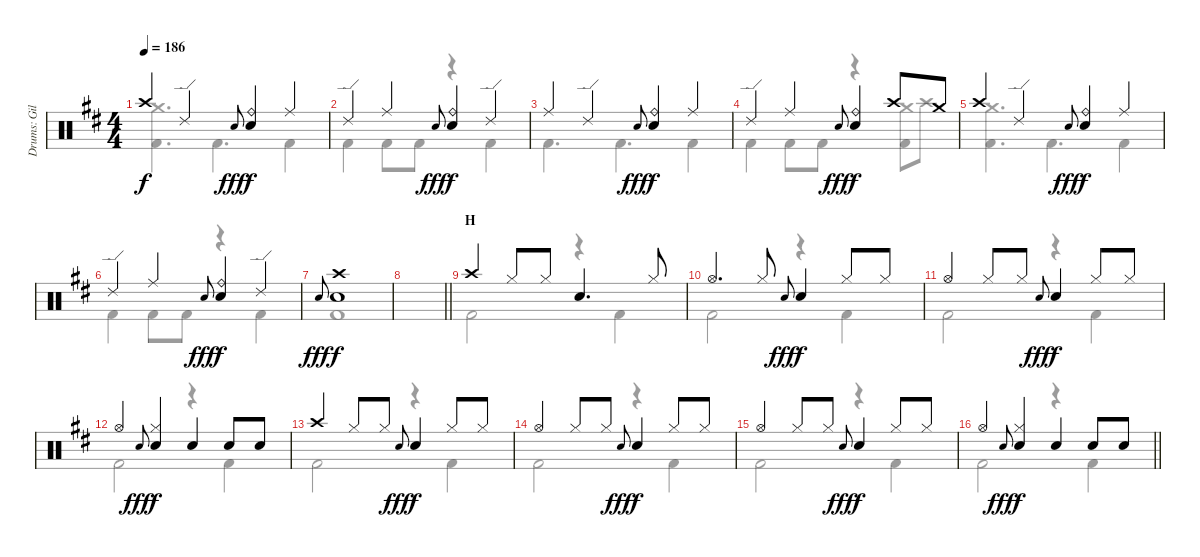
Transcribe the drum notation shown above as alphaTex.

\track ("Drums: Gil" "Drums: Gil") {instrument percussion}
\staff {score}
\articulation defaults
\voice
\ts (4 4)
\tempo 186
\clef neutral
\ks d "Crash high (hit)".4{dy f} "Ride (edge) 2".4 "Electric Snare (hit)".8{gr onbeat dy fff}
("Ride (bell)" "Snare (hit) 2").4{dy f} "Ride (middle)".4 |
"Ride (edge) 2".4 "Ride (middle)".4 "Electric Snare (hit)".8{gr onbeat dy fff} ("Ride (bell)" "Snare (hit) 2").4{dy f} "Ride (edge) 2".4 |
"Ride (middle)".4 "Ride (edge) 2".4 "Electric Snare (hit)".8{gr onbeat dy fff} ("Ride (bell)" "Snare (hit) 2").4{dy f} "Ride (middle)".4 |
"Ride (edge) 2".4 "Ride (middle)".4 "Electric Snare (hit)".8{gr onbeat dy fff} ("Ride (bell)" "Snare (hit) 2").4{dy f} "Crash high (hit)".8 "Crash medium (hit)".8 |
"Crash high (hit)".4 "Ride (edge) 2".4 "Electric Snare (hit)".8{gr onbeat dy fff} ("Ride (bell)" "Snare (hit) 2").4{dy f} "Ride (middle)".4 |
"Ride (edge) 2".4 "Ride (middle)".4 "Electric Snare (hit)".8{gr onbeat dy fff} ("Ride (bell)" "Snare (hit) 2").4{dy f} "Ride (edge) 2".4 |
"Electric Snare (hit)".8{gr onbeat dy fff} ("Crash high (hit)" "Snare (hit) 2").1{dy f} |
\barLineRight lightlight
|
\section ("" "H")
"Crash high (hit)".4 "Hi-Hat (closed)".8 "Hi-Hat (closed)".8 "Snare (hit) 2".4{d} "Hi-Hat (closed)".8 |
"Hi-Hat (open)".4{d} "Hi-Hat (closed)".8 "Electric Snare (hit)".8{gr onbeat dy fff} "Snare (hit) 2".4{dy f} "Hi-Hat (closed)".8 "Hi-Hat (closed)".8 |
"Hi-Hat (open)".4 "Hi-Hat (closed)".8 "Hi-Hat (closed)".8 "Electric Snare (hit)".8{gr onbeat dy fff} "Snare (hit) 2".4{dy f} "Hi-Hat (closed)".8 "Hi-Hat (closed)".8 |
"Hi-Hat (open)".4 "Electric Snare (hit)".8{gr onbeat dy fff} ("Hi-Hat (closed)" "Snare (hit) 2").4{dy f} "Snare (hit) 2".4 "Snare (hit) 2".8 "Snare (hit) 2".8 |
"Crash high (hit)".4 "Hi-Hat (closed)".8 "Hi-Hat (closed)".8 "Electric Snare (hit)".8{gr onbeat dy fff} "Snare (hit) 2".4{dy f} "Hi-Hat (closed)".8 "Hi-Hat (closed)".8 |
"Hi-Hat (open)".4 "Hi-Hat (closed)".8 "Hi-Hat (closed)".8 "Electric Snare (hit)".8{gr onbeat dy fff} "Snare (hit) 2".4{dy f} "Hi-Hat (closed)".8 "Hi-Hat (closed)".8 |
"Hi-Hat (open)".4 "Hi-Hat (closed)".8 "Hi-Hat (closed)".8 "Electric Snare (hit)".8{gr onbeat dy fff} "Snare (hit) 2".4{dy f} "Hi-Hat (closed)".8 "Hi-Hat (closed)".8 |
\barLineRight lightlight "Hi-Hat (open)".4 "Electric Snare (hit)".8{gr onbeat dy fff}
("Hi-Hat (closed)" "Snare (hit) 2").4{dy f} "Snare (hit) 2".4 "Snare (hit) 2".8 "Snare (hit) 2".8
\voice
\clef neutral
\ottava regular
\simile none
\ks d
("Crash medium (hit)" "Kick (hit) 2").4{d dy f} "Kick (hit) 2".4{d} "Kick (hit) 2".4 |
"Kick (hit) 2".4 "Kick (hit) 2".8 "Kick (hit) 2".8 r.4 "Kick (hit) 2".4 |
"Kick (hit) 2".4{d} "Kick (hit) 2".4{d} "Kick (hit) 2".4 |
"Kick (hit) 2".4 "Kick (hit) 2".8 "Kick (hit) 2".8 r.4 ("Crash medium (hit)" "Kick (hit) 2").8 "Crash high (hit)".8 |
("Crash medium (hit)" "Kick (hit) 2").4{d} "Kick (hit) 2".4{d} "Kick (hit) 2".4 |
"Kick (hit) 2".4 "Kick (hit) 2".8 "Kick (hit) 2".8 r.4 "Kick (hit) 2".4 |
"Kick (hit) 2".1 |
\barLineRight lightlight
|
"Kick (hit) 2".2 r.4 "Kick (hit) 2".4 |
"Kick (hit) 2".2 r.4 "Kick (hit) 2".4 |
"Kick (hit) 2".2 r.4 "Kick (hit) 2".4 |
"Kick (hit) 2".2 r.4 "Kick (hit) 2".4 |
"Kick (hit) 2".2 r.4 "Kick (hit) 2".4 |
"Kick (hit) 2".2 r.4 "Kick (hit) 2".4 |
"Kick (hit) 2".2 r.4 "Kick (hit) 2".4 |
\barLineRight lightlight "Kick (hit) 2".2
r.4 "Kick (hit) 2".4
